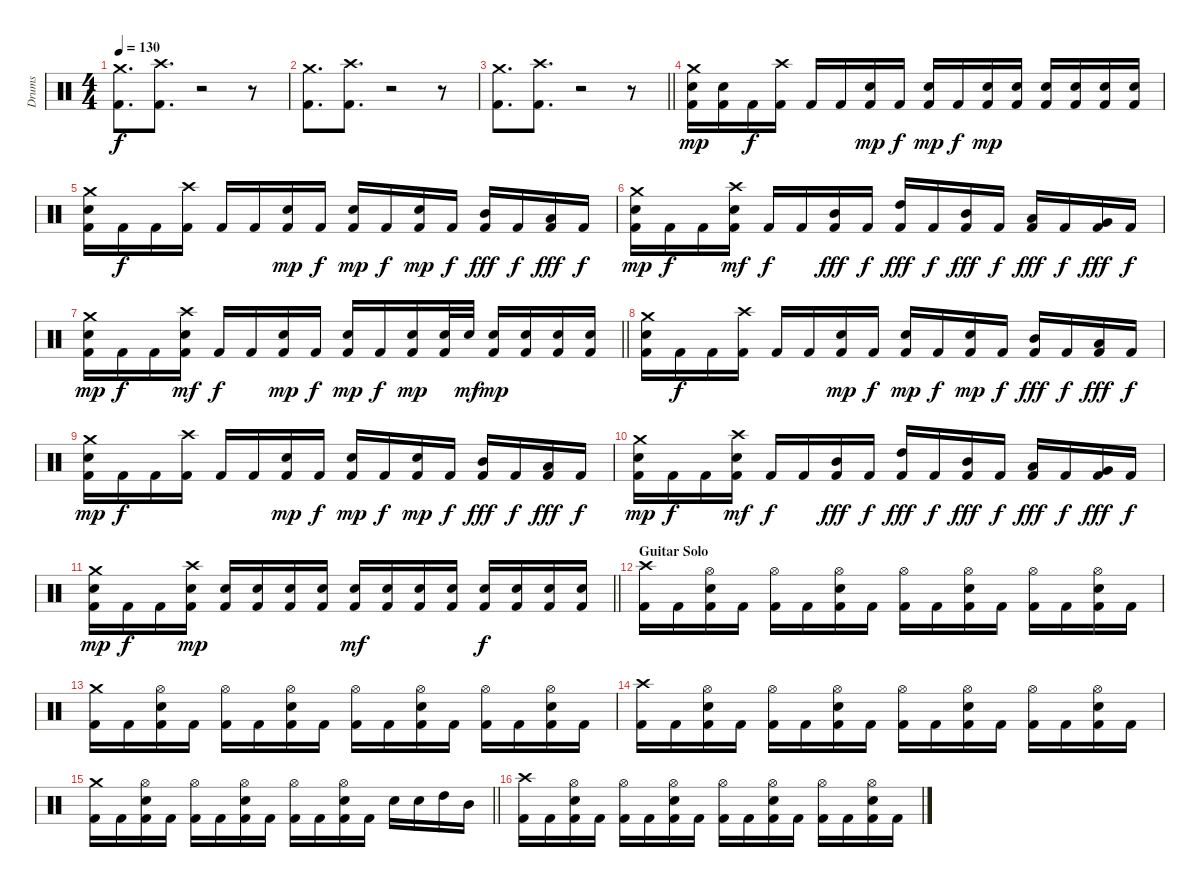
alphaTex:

\track ("Drums" "Drums") {instrument percussion}
\staff {score}
\articulation defaults
\ts (4 4)
\tempo 130
\clef neutral
\ks c
("Crash medium (hit)" "Kick (hit) 2").8{d dy f} ("Crash high (hit)" "Kick (hit) 2").8{d} r.2 r.8 |
("Crash medium (hit)" "Kick (hit) 2").8{d} ("Crash high (hit)" "Kick (hit) 2").8{d} r.2 r.8 |
\barLineRight lightlight
("Crash medium (hit)" "Kick (hit) 2").8{d} ("Crash high (hit)" "Kick (hit) 2").8{d} r.2 r.8 |
("Electric Snare (hit)" "Crash medium (hit)" "Kick (hit) 2").16{dy mp} ("Electric Snare (hit)" "Kick (hit) 2").16 "Kick (hit) 2".16{dy f} ("Crash high (hit)" "Kick (hit) 2").16 "Kick (hit) 2".16 "Kick (hit) 2".16 ("Snare (hit) 2" "Kick (hit) 2").16{dy mp} "Kick (hit) 2".16{dy f} ("Snare (hit) 2" "Kick (hit) 2").16{dy mp} "Kick (hit) 2".16{dy f} ("Electric Snare (hit)" "Kick (hit) 2").16{dy mp} ("Electric Snare (hit)" "Kick (hit) 2").16 ("Electric Snare (hit)" "Kick (hit) 2").16 ("Electric Snare (hit)" "Kick (hit) 2").16 ("Electric Snare (hit)" "Kick (hit) 2").16 ("Electric Snare (hit)" "Kick (hit) 2").16 |
("Electric Snare (hit)" "Crash medium (hit)" "Kick (hit) 2").16 "Kick (hit) 2".16{dy f} "Kick (hit) 2".16 ("Crash high (hit)" "Kick (hit) 2").16 "Kick (hit) 2".16 "Kick (hit) 2".16 ("Snare (hit) 2" "Kick (hit) 2").16{dy mp} "Kick (hit) 2".16{dy f} ("Snare (hit) 2" "Kick (hit) 2").16{dy mp} "Kick (hit) 2".16{dy f} ("Snare (hit) 2" "Kick (hit) 2").16{dy mp} "Kick (hit) 2".16{dy f} ("Mid Tom (hit)" "Kick (hit) 2").16{dy fff} "Kick (hit) 2".16{dy f} ("Low Tom (hit)" "Kick (hit) 2").16{dy fff} "Kick (hit) 2".16{dy f} |
("Electric Snare (hit)" "Crash medium (hit)" "Kick (hit) 2").16{dy mp} "Kick (hit) 2".16{dy f} "Kick (hit) 2".16 ("Electric Snare (hit)" "Crash high (hit)" "Kick (hit) 2").16{dy mf} "Kick (hit) 2".16{dy f} "Kick (hit) 2".16 ("Mid Tom (hit)" "Kick (hit) 2").16{dy fff} "Kick (hit) 2".16{dy f} ("High Tom (hit)" "Kick (hit) 2").16{dy fff} "Kick (hit) 2".16{dy f} ("Mid Tom (hit)" "Kick (hit) 2").16{dy fff} "Kick (hit) 2".16{dy f} ("Low Tom (hit)" "Kick (hit) 2").16{dy fff} "Kick (hit) 2".16{dy f} ("Very Low Tom (hit)" "Kick (hit) 2").16{dy fff} "Kick (hit) 2".16{dy f} |
\barLineRight lightlight
("Electric Snare (hit)" "Crash medium (hit)" "Kick (hit) 2").16{dy mp} "Kick (hit) 2".16{dy f} "Kick (hit) 2".16 ("Electric Snare (hit)" "Crash high (hit)" "Kick (hit) 2").16{dy mf} "Kick (hit) 2".16{dy f} "Kick (hit) 2".16 ("Snare (hit) 2" "Kick (hit) 2").16{dy mp} "Kick (hit) 2".16{dy f} ("Snare (hit) 2" "Kick (hit) 2").16{dy mp} "Kick (hit) 2".16{dy f} ("Electric Snare (hit)" "Kick (hit) 2").16{dy mp} ("Electric Snare (hit)" "Kick (hit) 2").32 "Electric Snare (hit)".32{dy mf} ("Electric Snare (hit)" "Kick (hit) 2").16{dy mp} ("Electric Snare (hit)" "Kick (hit) 2").16 ("Electric Snare (hit)" "Kick (hit) 2").16 ("Electric Snare (hit)" "Kick (hit) 2").16 |
("Electric Snare (hit)" "Crash medium (hit)" "Kick (hit) 2").16 "Kick (hit) 2".16{dy f} "Kick (hit) 2".16 ("Crash high (hit)" "Kick (hit) 2").16 "Kick (hit) 2".16 "Kick (hit) 2".16 ("Snare (hit) 2" "Kick (hit) 2").16{dy mp} "Kick (hit) 2".16{dy f} ("Snare (hit) 2" "Kick (hit) 2").16{dy mp} "Kick (hit) 2".16{dy f} ("Snare (hit) 2" "Kick (hit) 2").16{dy mp} "Kick (hit) 2".16{dy f} ("Mid Tom (hit)" "Kick (hit) 2").16{dy fff} "Kick (hit) 2".16{dy f} ("Low Tom (hit)" "Kick (hit) 2").16{dy fff} "Kick (hit) 2".16{dy f} |
("Electric Snare (hit)" "Crash medium (hit)" "Kick (hit) 2").16{dy mp} "Kick (hit) 2".16{dy f} "Kick (hit) 2".16 ("Crash high (hit)" "Kick (hit) 2").16 "Kick (hit) 2".16 "Kick (hit) 2".16 ("Snare (hit) 2" "Kick (hit) 2").16{dy mp} "Kick (hit) 2".16{dy f} ("Snare (hit) 2" "Kick (hit) 2").16{dy mp} "Kick (hit) 2".16{dy f} ("Snare (hit) 2" "Kick (hit) 2").16{dy mp} "Kick (hit) 2".16{dy f} ("Mid Tom (hit)" "Kick (hit) 2").16{dy fff} "Kick (hit) 2".16{dy f} ("Low Tom (hit)" "Kick (hit) 2").16{dy fff} "Kick (hit) 2".16{dy f} |
("Electric Snare (hit)" "Crash medium (hit)" "Kick (hit) 2").16{dy mp} "Kick (hit) 2".16{dy f} "Kick (hit) 2".16 ("Electric Snare (hit)" "Crash high (hit)" "Kick (hit) 2").16{dy mf} "Kick (hit) 2".16{dy f} "Kick (hit) 2".16 ("Mid Tom (hit)" "Kick (hit) 2").16{dy fff} "Kick (hit) 2".16{dy f} ("High Tom (hit)" "Kick (hit) 2").16{dy fff} "Kick (hit) 2".16{dy f} ("Mid Tom (hit)" "Kick (hit) 2").16{dy fff} "Kick (hit) 2".16{dy f} ("Low Tom (hit)" "Kick (hit) 2").16{dy fff} "Kick (hit) 2".16{dy f} ("Very Low Tom (hit)" "Kick (hit) 2").16{dy fff} "Kick (hit) 2".16{dy f} |
\barLineRight lightlight
("Electric Snare (hit)" "Crash medium (hit)" "Kick (hit) 2").16{dy mp} "Kick (hit) 2".16{dy f} "Kick (hit) 2".16 ("Snare (hit) 2" "Crash high (hit)" "Kick (hit) 2").16{dy mp} ("Snare (hit) 2" "Kick (hit) 2").16 ("Snare (hit) 2" "Kick (hit) 2").16 ("Snare (hit) 2" "Kick (hit) 2").16 ("Snare (hit) 2" "Kick (hit) 2").16 ("Snare (hit) 2" "Kick (hit) 2").16{dy mf} ("Snare (hit) 2" "Kick (hit) 2").16 ("Snare (hit) 2" "Kick (hit) 2").16 ("Snare (hit) 2" "Kick (hit) 2").16 ("Snare (hit) 2" "Kick (hit) 2").16{dy f} ("Snare (hit) 2" "Kick (hit) 2").16 ("Snare (hit) 2" "Kick (hit) 2").16 ("Snare (hit) 2" "Kick (hit) 2").16 |
\section ("" "Guitar Solo")
("Crash high (hit)" "Kick (hit) 2").16 "Kick (hit) 2".16 ("Snare (hit) 2" "Hi-Hat (open)" "Kick (hit) 2").16 "Kick (hit) 2".16 ("Hi-Hat (open)" "Kick (hit) 2").16 "Kick (hit) 2".16 ("Snare (hit) 2" "Hi-Hat (open)" "Kick (hit) 2").16 "Kick (hit) 2".16 ("Hi-Hat (open)" "Kick (hit) 2").16 "Kick (hit) 2".16 ("Snare (hit) 2" "Hi-Hat (open)" "Kick (hit) 2").16 "Kick (hit) 2".16 ("Hi-Hat (open)" "Kick (hit) 2").16 "Kick (hit) 2".16 ("Snare (hit) 2" "Hi-Hat (open)" "Kick (hit) 2").16 "Kick (hit) 2".16 |
("Crash medium (hit)" "Kick (hit) 2").16 "Kick (hit) 2".16 ("Snare (hit) 2" "Hi-Hat (open)" "Kick (hit) 2").16 "Kick (hit) 2".16 ("Hi-Hat (open)" "Kick (hit) 2").16 "Kick (hit) 2".16 ("Snare (hit) 2" "Hi-Hat (open)" "Kick (hit) 2").16 "Kick (hit) 2".16 ("Hi-Hat (open)" "Kick (hit) 2").16 "Kick (hit) 2".16 ("Snare (hit) 2" "Hi-Hat (open)" "Kick (hit) 2").16 "Kick (hit) 2".16 ("Hi-Hat (open)" "Kick (hit) 2").16 "Kick (hit) 2".16 ("Snare (hit) 2" "Hi-Hat (open)" "Kick (hit) 2").16 "Kick (hit) 2".16 |
("Crash high (hit)" "Kick (hit) 2").16 "Kick (hit) 2".16 ("Snare (hit) 2" "Hi-Hat (open)" "Kick (hit) 2").16 "Kick (hit) 2".16 ("Hi-Hat (open)" "Kick (hit) 2").16 "Kick (hit) 2".16 ("Snare (hit) 2" "Hi-Hat (open)" "Kick (hit) 2").16 "Kick (hit) 2".16 ("Hi-Hat (open)" "Kick (hit) 2").16 "Kick (hit) 2".16 ("Snare (hit) 2" "Hi-Hat (open)" "Kick (hit) 2").16 "Kick (hit) 2".16 ("Hi-Hat (open)" "Kick (hit) 2").16 "Kick (hit) 2".16 ("Snare (hit) 2" "Hi-Hat (open)" "Kick (hit) 2").16 "Kick (hit) 2".16 |
\barLineRight lightlight
("Crash medium (hit)" "Kick (hit) 2").16 "Kick (hit) 2".16 ("Snare (hit) 2" "Hi-Hat (open)" "Kick (hit) 2").16 "Kick (hit) 2".16 ("Hi-Hat (open)" "Kick (hit) 2").16 "Kick (hit) 2".16 ("Snare (hit) 2" "Hi-Hat (open)" "Kick (hit) 2").16 "Kick (hit) 2".16 ("Hi-Hat (open)" "Kick (hit) 2").16 "Kick (hit) 2".16 ("Snare (hit) 2" "Hi-Hat (open)" "Kick (hit) 2").16 "Kick (hit) 2".16 "Snare (hit) 2".16 "Snare (hit) 2".16 "High Tom (hit)".16 "Mid Tom (hit)".16 |
("Crash high (hit)" "Kick (hit) 2").16 "Kick (hit) 2".16 ("Snare (hit) 2" "Hi-Hat (open)" "Kick (hit) 2").16 "Kick (hit) 2".16 ("Hi-Hat (open)" "Kick (hit) 2").16 "Kick (hit) 2".16 ("Snare (hit) 2" "Hi-Hat (open)" "Kick (hit) 2").16 "Kick (hit) 2".16 ("Hi-Hat (open)" "Kick (hit) 2").16 "Kick (hit) 2".16 ("Snare (hit) 2" "Hi-Hat (open)" "Kick (hit) 2").16 "Kick (hit) 2".16 ("Hi-Hat (open)" "Kick (hit) 2").16 "Kick (hit) 2".16 ("Snare (hit) 2" "Hi-Hat (open)" "Kick (hit) 2").16 "Kick (hit) 2".16
